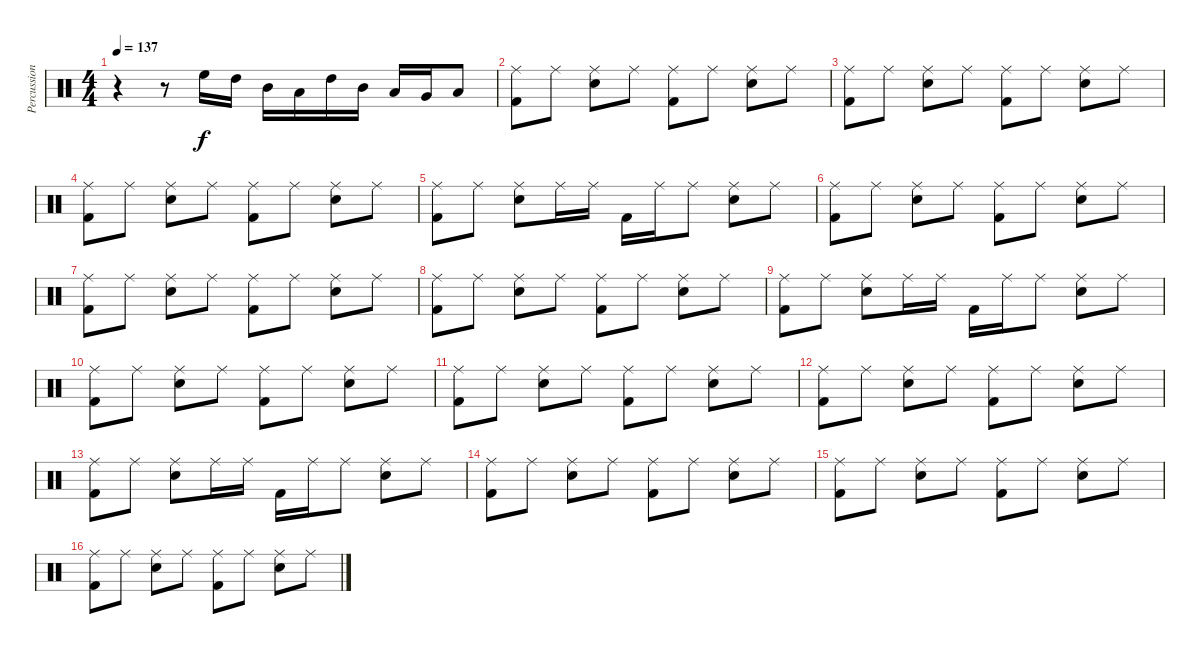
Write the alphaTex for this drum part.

\track ("Percussion" "Percussion") {instrument percussion}
\staff {score}
\articulation defaults
\ts (4 4)
\tempo 137
\clef neutral
\ks c
r.4{dy f} r.8 "High Floor Tom (hit)".16 "High Tom (hit)".16 "Mid Tom (hit)".16 "Low Tom (hit)".16 "High Tom (hit)".16 "Mid Tom (hit)".16 "Low Tom (hit)".16 "Very Low Tom (hit)".16 "Low Floor Tom (hit)".8 |
("Ride (middle)" "Kick (hit) 2").8 "Ride (middle)".8 ("Ride (middle)" "Snare (hit) 2").8 "Ride (middle)".8 ("Ride (middle)" "Kick (hit) 2").8 "Ride (middle)".8 ("Ride (middle)" "Snare (hit) 2").8 "Ride (middle)".8 |
("Ride (middle)" "Kick (hit) 2").8 "Ride (middle)".8 ("Ride (middle)" "Snare (hit) 2").8 "Ride (middle)".8 ("Ride (middle)" "Kick (hit) 2").8 "Ride (middle)".8 ("Ride (middle)" "Snare (hit) 2").8 "Ride (middle)".8 |
("Ride (middle)" "Kick (hit) 2").8 "Ride (middle)".8 ("Ride (middle)" "Snare (hit) 2").8 "Ride (middle)".8 ("Ride (middle)" "Kick (hit) 2").8 "Ride (middle)".8 ("Ride (middle)" "Snare (hit) 2").8 "Ride (middle)".8 |
("Ride (middle)" "Kick (hit) 2").8 "Ride (middle)".8 ("Ride (middle)" "Snare (hit) 2").8 "Ride (middle)".16 "Ride (middle)".16 "Kick (hit) 2".16 "Ride (middle)".16 "Ride (middle)".8 ("Ride (middle)" "Snare (hit) 2").8 "Ride (middle)".8 |
("Ride (middle)" "Kick (hit) 2").8 "Ride (middle)".8 ("Ride (middle)" "Snare (hit) 2").8 "Ride (middle)".8 ("Ride (middle)" "Kick (hit) 2").8 "Ride (middle)".8 ("Ride (middle)" "Snare (hit) 2").8 "Ride (middle)".8 |
("Ride (middle)" "Kick (hit) 2").8 "Ride (middle)".8 ("Ride (middle)" "Snare (hit) 2").8 "Ride (middle)".8 ("Ride (middle)" "Kick (hit) 2").8 "Ride (middle)".8 ("Ride (middle)" "Snare (hit) 2").8 "Ride (middle)".8 |
("Ride (middle)" "Kick (hit) 2").8 "Ride (middle)".8 ("Ride (middle)" "Snare (hit) 2").8 "Ride (middle)".8 ("Ride (middle)" "Kick (hit) 2").8 "Ride (middle)".8 ("Ride (middle)" "Snare (hit) 2").8 "Ride (middle)".8 |
("Ride (middle)" "Kick (hit) 2").8 "Ride (middle)".8 ("Ride (middle)" "Snare (hit) 2").8 "Ride (middle)".16 "Ride (middle)".16 "Kick (hit) 2".16 "Ride (middle)".16 "Ride (middle)".8 ("Ride (middle)" "Snare (hit) 2").8 "Ride (middle)".8 |
("Ride (middle)" "Kick (hit) 2").8 "Ride (middle)".8 ("Ride (middle)" "Snare (hit) 2").8 "Ride (middle)".8 ("Ride (middle)" "Kick (hit) 2").8 "Ride (middle)".8 ("Ride (middle)" "Snare (hit) 2").8 "Ride (middle)".8 |
("Ride (middle)" "Kick (hit) 2").8 "Ride (middle)".8 ("Ride (middle)" "Snare (hit) 2").8 "Ride (middle)".8 ("Ride (middle)" "Kick (hit) 2").8 "Ride (middle)".8 ("Ride (middle)" "Snare (hit) 2").8 "Ride (middle)".8 |
("Ride (middle)" "Kick (hit) 2").8 "Ride (middle)".8 ("Ride (middle)" "Snare (hit) 2").8 "Ride (middle)".8 ("Ride (middle)" "Kick (hit) 2").8 "Ride (middle)".8 ("Ride (middle)" "Snare (hit) 2").8 "Ride (middle)".8 |
("Ride (middle)" "Kick (hit) 2").8 "Ride (middle)".8 ("Ride (middle)" "Snare (hit) 2").8 "Ride (middle)".16 "Ride (middle)".16 "Kick (hit) 2".16 "Ride (middle)".16 "Ride (middle)".8 ("Ride (middle)" "Snare (hit) 2").8 "Ride (middle)".8 |
("Ride (middle)" "Kick (hit) 2").8 "Ride (middle)".8 ("Ride (middle)" "Snare (hit) 2").8 "Ride (middle)".8 ("Ride (middle)" "Kick (hit) 2").8 "Ride (middle)".8 ("Ride (middle)" "Snare (hit) 2").8 "Ride (middle)".8 |
("Ride (middle)" "Kick (hit) 2").8 "Ride (middle)".8 ("Ride (middle)" "Snare (hit) 2").8 "Ride (middle)".8 ("Ride (middle)" "Kick (hit) 2").8 "Ride (middle)".8 ("Ride (middle)" "Snare (hit) 2").8 "Ride (middle)".8 |
("Ride (middle)" "Kick (hit) 2").8 "Ride (middle)".8 ("Ride (middle)" "Snare (hit) 2").8 "Ride (middle)".8 ("Ride (middle)" "Kick (hit) 2").8 "Ride (middle)".8 ("Ride (middle)" "Snare (hit) 2").8 "Ride (middle)".8
